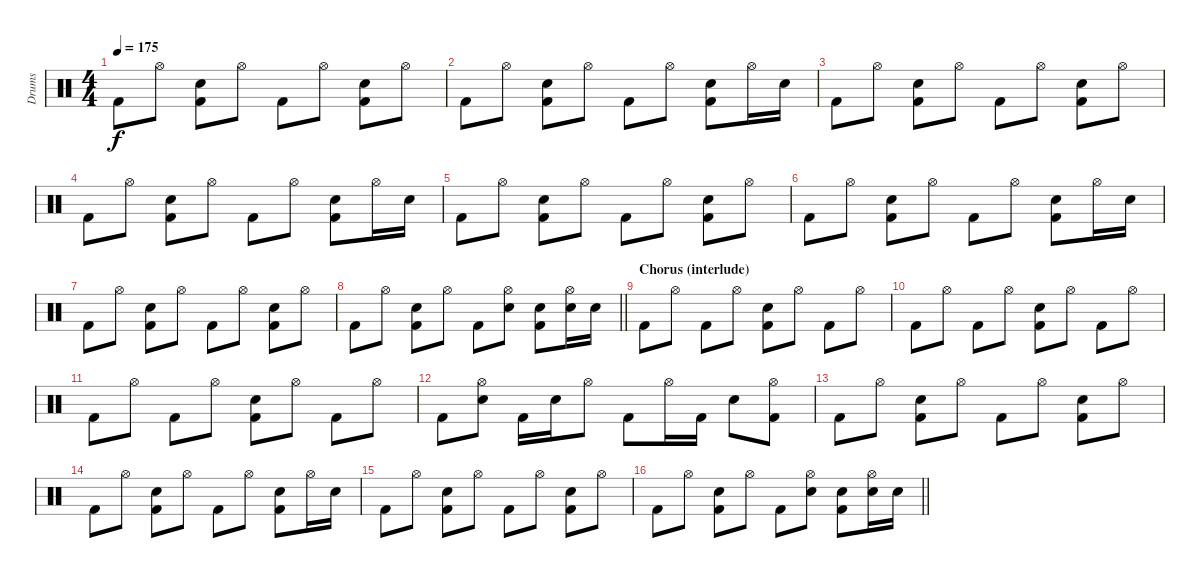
\track ("Drums" "Drums") {instrument percussion}
\staff {score}
\articulation defaults
\ts (4 4)
\tempo 175
\clef neutral
\ks c "Kick (hit) 2".8{dy f} "Hi-Hat (open)".8
("Kick (hit) 2" "Snare (hit) 2").8 "Hi-Hat (open)".8 "Kick (hit) 2".8 "Hi-Hat (open)".8 ("Kick (hit) 2" "Snare (hit) 2").8 "Hi-Hat (open)".8 |
"Kick (hit) 2".8 "Hi-Hat (open)".8 ("Kick (hit) 2" "Snare (hit) 2").8 "Hi-Hat (open)".8 "Kick (hit) 2".8 "Hi-Hat (open)".8 ("Kick (hit) 2" "Snare (hit) 2").8 "Hi-Hat (open)".16 "Snare (hit) 2".16 |
"Kick (hit) 2".8 "Hi-Hat (open)".8 ("Kick (hit) 2" "Snare (hit) 2").8 "Hi-Hat (open)".8 "Kick (hit) 2".8 "Hi-Hat (open)".8 ("Kick (hit) 2" "Snare (hit) 2").8 "Hi-Hat (open)".8 |
"Kick (hit) 2".8 "Hi-Hat (open)".8 ("Kick (hit) 2" "Snare (hit) 2").8 "Hi-Hat (open)".8 "Kick (hit) 2".8 "Hi-Hat (open)".8 ("Kick (hit) 2" "Snare (hit) 2").8 "Hi-Hat (open)".16 "Snare (hit) 2".16 |
"Kick (hit) 2".8 "Hi-Hat (open)".8 ("Kick (hit) 2" "Snare (hit) 2").8 "Hi-Hat (open)".8 "Kick (hit) 2".8 "Hi-Hat (open)".8 ("Kick (hit) 2" "Snare (hit) 2").8 "Hi-Hat (open)".8 |
"Kick (hit) 2".8 "Hi-Hat (open)".8 ("Kick (hit) 2" "Snare (hit) 2").8 "Hi-Hat (open)".8 "Kick (hit) 2".8 "Hi-Hat (open)".8 ("Kick (hit) 2" "Snare (hit) 2").8 "Hi-Hat (open)".16 "Snare (hit) 2".16 |
"Kick (hit) 2".8 "Hi-Hat (open)".8 ("Kick (hit) 2" "Snare (hit) 2").8 "Hi-Hat (open)".8 "Kick (hit) 2".8 "Hi-Hat (open)".8 ("Kick (hit) 2" "Snare (hit) 2").8 "Hi-Hat (open)".8 |
\barLineRight lightlight "Kick (hit) 2".8 "Hi-Hat (open)".8
("Kick (hit) 2" "Snare (hit) 2").8 "Hi-Hat (open)".8 "Kick (hit) 2".8 ("Hi-Hat (open)" "Snare (hit) 2").8 ("Kick (hit) 2" "Snare (hit) 2").8 ("Hi-Hat (open)" "Snare (hit) 2").16 "Snare (hit) 2".16 |
\section ("" "Chorus (interlude)")
"Kick (hit) 2".8 "Hi-Hat (open)".8 "Kick (hit) 2".8 "Hi-Hat (open)".8 ("Kick (hit) 2" "Snare (hit) 2").8 "Hi-Hat (open)".8 "Kick (hit) 2".8 "Hi-Hat (open)".8 |
"Kick (hit) 2".8 "Hi-Hat (open)".8 "Kick (hit) 2".8 "Hi-Hat (open)".8 ("Kick (hit) 2" "Snare (hit) 2").8 "Hi-Hat (open)".8 "Kick (hit) 2".8 "Hi-Hat (open)".8 |
"Kick (hit) 2".8 "Hi-Hat (open)".8 "Kick (hit) 2".8 "Hi-Hat (open)".8 ("Kick (hit) 2" "Snare (hit) 2").8 "Hi-Hat (open)".8 "Kick (hit) 2".8 "Hi-Hat (open)".8 |
"Kick (hit) 2".8 ("Hi-Hat (open)" "Snare (hit) 2").8 "Kick (hit) 2".16 "Snare (hit) 2".16 "Hi-Hat (open)".8 "Kick (hit) 2".8 "Hi-Hat (open)".16 "Kick (hit) 2".16 "Snare (hit) 2".8 ("Kick (hit) 2" "Hi-Hat (open)").8 |
"Kick (hit) 2".8 "Hi-Hat (open)".8 ("Kick (hit) 2" "Snare (hit) 2").8 "Hi-Hat (open)".8 "Kick (hit) 2".8 "Hi-Hat (open)".8 ("Kick (hit) 2" "Snare (hit) 2").8 "Hi-Hat (open)".8 |
"Kick (hit) 2".8 "Hi-Hat (open)".8 ("Kick (hit) 2" "Snare (hit) 2").8 "Hi-Hat (open)".8 "Kick (hit) 2".8 "Hi-Hat (open)".8 ("Kick (hit) 2" "Snare (hit) 2").8 "Hi-Hat (open)".16 "Snare (hit) 2".16 |
"Kick (hit) 2".8 "Hi-Hat (open)".8 ("Kick (hit) 2" "Snare (hit) 2").8 "Hi-Hat (open)".8 "Kick (hit) 2".8 "Hi-Hat (open)".8 ("Kick (hit) 2" "Snare (hit) 2").8 "Hi-Hat (open)".8 |
\barLineRight lightlight "Kick (hit) 2".8 "Hi-Hat (open)".8
("Kick (hit) 2" "Snare (hit) 2").8 "Hi-Hat (open)".8 "Kick (hit) 2".8 ("Hi-Hat (open)" "Snare (hit) 2").8 ("Kick (hit) 2" "Snare (hit) 2").8 ("Hi-Hat (open)" "Snare (hit) 2").16 "Snare (hit) 2".16
